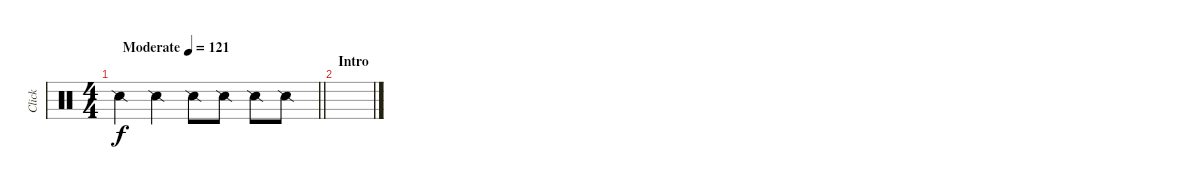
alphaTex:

\track ("Click" "Click") {instrument percussion}
\staff {score}
\articulation defaults
\ts (4 4)
\tempo (121 "Moderate")
\clef neutral
\barLineRight lightlight
\ks c "Snare (side stick) 2".4{dy f} "Snare (side stick) 2".4 "Snare (side stick) 2".8 "Snare (side stick) 2".8 "Snare (side stick) 2".8 "Snare (side stick) 2".8
|
\section ("" "Intro")
